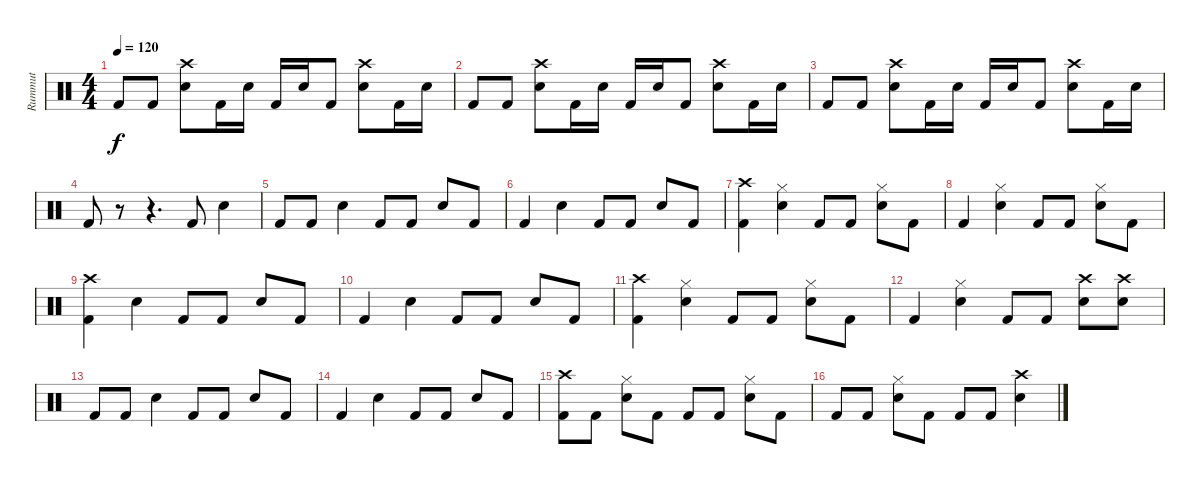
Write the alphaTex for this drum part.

\track ("Rummut" "Rummut") {instrument percussion}
\staff {score}
\articulation defaults
\ts (4 4)
\tempo 120
\clef neutral
\ks c "Kick (hit) 2".8{dy f} "Kick (hit) 2".8
("Crash high (hit)" "Snare (hit) 2").8 "Kick (hit) 2".16 "Snare (hit) 2".16 "Kick (hit) 2".16 "Snare (hit) 2".16 "Kick (hit) 2".8 ("Crash high (hit)" "Snare (hit) 2").8 "Kick (hit) 2".16 "Snare (hit) 2".16 |
"Kick (hit) 2".8 "Kick (hit) 2".8 ("Crash high (hit)" "Snare (hit) 2").8 "Kick (hit) 2".16 "Snare (hit) 2".16 "Kick (hit) 2".16 "Snare (hit) 2".16 "Kick (hit) 2".8 ("Crash high (hit)" "Snare (hit) 2").8 "Kick (hit) 2".16 "Snare (hit) 2".16 |
"Kick (hit) 2".8 "Kick (hit) 2".8 ("Crash high (hit)" "Snare (hit) 2").8 "Kick (hit) 2".16 "Snare (hit) 2".16 "Kick (hit) 2".16 "Snare (hit) 2".16 "Kick (hit) 2".8 ("Crash high (hit)" "Snare (hit) 2").8 "Kick (hit) 2".16 "Snare (hit) 2".16 |
"Kick (hit) 2".8 r.8 r.4{d} "Kick (hit) 2".8 "Snare (hit) 2".4 |
"Kick (hit) 2".8 "Kick (hit) 2".8 "Snare (hit) 2".4 "Kick (hit) 2".8 "Kick (hit) 2".8 "Snare (hit) 2".8 "Kick (hit) 2".8 |
"Kick (hit) 2".4 "Snare (hit) 2".4 "Kick (hit) 2".8 "Kick (hit) 2".8 "Snare (hit) 2".8 "Kick (hit) 2".8 |
("Crash high (hit)" "Kick (hit) 2").4 ("Hi-Hat (closed)" "Snare (hit) 2").4 "Kick (hit) 2".8 "Kick (hit) 2".8 ("Hi-Hat (closed)" "Snare (hit) 2").8 "Kick (hit) 2".8 |
"Kick (hit) 2".4 ("Hi-Hat (closed)" "Snare (hit) 2").4 "Kick (hit) 2".8 "Kick (hit) 2".8 ("Hi-Hat (closed)" "Snare (hit) 2").8 "Kick (hit) 2".8 |
("Crash high (hit)" "Kick (hit) 2").4 "Snare (hit) 2".4 "Kick (hit) 2".8 "Kick (hit) 2".8 "Snare (hit) 2".8 "Kick (hit) 2".8 |
"Kick (hit) 2".4 "Snare (hit) 2".4 "Kick (hit) 2".8 "Kick (hit) 2".8 "Snare (hit) 2".8 "Kick (hit) 2".8 |
("Crash high (hit)" "Kick (hit) 2").4 ("Hi-Hat (closed)" "Snare (hit) 2").4 "Kick (hit) 2".8 "Kick (hit) 2".8 ("Hi-Hat (closed)" "Snare (hit) 2").8 "Kick (hit) 2".8 |
"Kick (hit) 2".4 ("Hi-Hat (closed)" "Snare (hit) 2").4 "Kick (hit) 2".8 "Kick (hit) 2".8 ("Crash high (hit)" "Snare (hit) 2").8 ("Crash high (hit)" "Snare (hit) 2").8 |
"Kick (hit) 2".8 "Kick (hit) 2".8 "Snare (hit) 2".4 "Kick (hit) 2".8 "Kick (hit) 2".8 "Snare (hit) 2".8 "Kick (hit) 2".8 |
"Kick (hit) 2".4 "Snare (hit) 2".4 "Kick (hit) 2".8 "Kick (hit) 2".8 "Snare (hit) 2".8 "Kick (hit) 2".8 |
("Crash high (hit)" "Kick (hit) 2").8 "Kick (hit) 2".8 ("Hi-Hat (closed)" "Snare (hit) 2").8 "Kick (hit) 2".8 "Kick (hit) 2".8 "Kick (hit) 2".8 ("Hi-Hat (closed)" "Snare (hit) 2").8 "Kick (hit) 2".8 |
"Kick (hit) 2".8 "Kick (hit) 2".8 ("Hi-Hat (closed)" "Snare (hit) 2").8 "Kick (hit) 2".8 "Kick (hit) 2".8 "Kick (hit) 2".8 ("Crash high (hit)" "Snare (hit) 2").4
